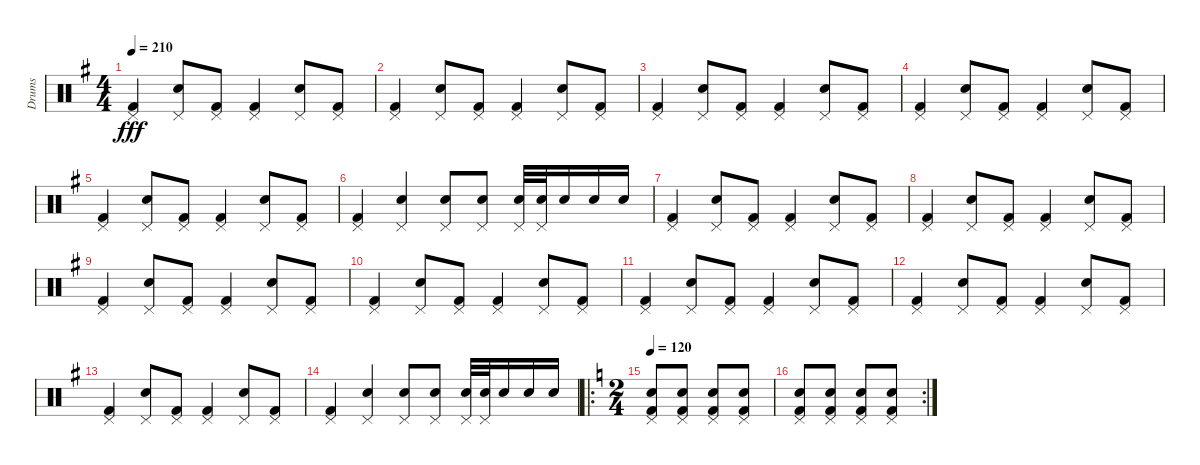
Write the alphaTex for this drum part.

\track ("Drums" "Drums") {instrument percussion}
\staff {score}
\articulation defaults
\ts (4 4)
\tempo 210
\clef neutral
\ks g
("Kick (hit) 2" "Pedal Hi-Hat (hit)").4{dy fff} ("Electric Snare (hit)" "Pedal Hi-Hat (hit)").8 ("Kick (hit) 2" "Pedal Hi-Hat (hit)").8 ("Kick (hit) 2" "Pedal Hi-Hat (hit)").4 ("Electric Snare (hit)" "Pedal Hi-Hat (hit)").8 ("Kick (hit) 2" "Pedal Hi-Hat (hit)").8 |
("Kick (hit) 2" "Pedal Hi-Hat (hit)").4 ("Electric Snare (hit)" "Pedal Hi-Hat (hit)").8 ("Kick (hit) 2" "Pedal Hi-Hat (hit)").8 ("Kick (hit) 2" "Pedal Hi-Hat (hit)").4 ("Electric Snare (hit)" "Pedal Hi-Hat (hit)").8 ("Kick (hit) 2" "Pedal Hi-Hat (hit)").8 |
("Kick (hit) 2" "Pedal Hi-Hat (hit)").4 ("Electric Snare (hit)" "Pedal Hi-Hat (hit)").8 ("Kick (hit) 2" "Pedal Hi-Hat (hit)").8 ("Kick (hit) 2" "Pedal Hi-Hat (hit)").4 ("Electric Snare (hit)" "Pedal Hi-Hat (hit)").8 ("Kick (hit) 2" "Pedal Hi-Hat (hit)").8 |
("Kick (hit) 2" "Pedal Hi-Hat (hit)").4 ("Electric Snare (hit)" "Pedal Hi-Hat (hit)").8 ("Kick (hit) 2" "Pedal Hi-Hat (hit)").8 ("Kick (hit) 2" "Pedal Hi-Hat (hit)").4 ("Electric Snare (hit)" "Pedal Hi-Hat (hit)").8 ("Kick (hit) 2" "Pedal Hi-Hat (hit)").8 |
("Kick (hit) 2" "Pedal Hi-Hat (hit)").4 ("Electric Snare (hit)" "Pedal Hi-Hat (hit)").8 ("Kick (hit) 2" "Pedal Hi-Hat (hit)").8 ("Kick (hit) 2" "Pedal Hi-Hat (hit)").4 ("Electric Snare (hit)" "Pedal Hi-Hat (hit)").8 ("Kick (hit) 2" "Pedal Hi-Hat (hit)").8 |
("Kick (hit) 2" "Pedal Hi-Hat (hit)").4 ("Electric Snare (hit)" "Pedal Hi-Hat (hit)").4 ("Electric Snare (hit)" "Pedal Hi-Hat (hit)").8 ("Electric Snare (hit)" "Pedal Hi-Hat (hit)").8 ("Electric Snare (hit)" "Pedal Hi-Hat (hit)").32 ("Electric Snare (hit)" "Pedal Hi-Hat (hit)").32 "Electric Snare (hit)".16 "Electric Snare (hit)".16 "Electric Snare (hit)".16 |
("Kick (hit) 2" "Pedal Hi-Hat (hit)").4 ("Electric Snare (hit)" "Pedal Hi-Hat (hit)").8 ("Kick (hit) 2" "Pedal Hi-Hat (hit)").8 ("Kick (hit) 2" "Pedal Hi-Hat (hit)").4 ("Electric Snare (hit)" "Pedal Hi-Hat (hit)").8 ("Kick (hit) 2" "Pedal Hi-Hat (hit)").8 |
("Kick (hit) 2" "Pedal Hi-Hat (hit)").4 ("Electric Snare (hit)" "Pedal Hi-Hat (hit)").8 ("Kick (hit) 2" "Pedal Hi-Hat (hit)").8 ("Kick (hit) 2" "Pedal Hi-Hat (hit)").4 ("Electric Snare (hit)" "Pedal Hi-Hat (hit)").8 ("Kick (hit) 2" "Pedal Hi-Hat (hit)").8 |
("Kick (hit) 2" "Pedal Hi-Hat (hit)").4 ("Electric Snare (hit)" "Pedal Hi-Hat (hit)").8 ("Kick (hit) 2" "Pedal Hi-Hat (hit)").8 ("Kick (hit) 2" "Pedal Hi-Hat (hit)").4 ("Electric Snare (hit)" "Pedal Hi-Hat (hit)").8 ("Kick (hit) 2" "Pedal Hi-Hat (hit)").8 |
("Kick (hit) 2" "Pedal Hi-Hat (hit)").4 ("Electric Snare (hit)" "Pedal Hi-Hat (hit)").8 ("Kick (hit) 2" "Pedal Hi-Hat (hit)").8 ("Kick (hit) 2" "Pedal Hi-Hat (hit)").4 ("Electric Snare (hit)" "Pedal Hi-Hat (hit)").8 ("Kick (hit) 2" "Pedal Hi-Hat (hit)").8 |
("Kick (hit) 2" "Pedal Hi-Hat (hit)").4 ("Electric Snare (hit)" "Pedal Hi-Hat (hit)").8 ("Kick (hit) 2" "Pedal Hi-Hat (hit)").8 ("Kick (hit) 2" "Pedal Hi-Hat (hit)").4 ("Electric Snare (hit)" "Pedal Hi-Hat (hit)").8 ("Kick (hit) 2" "Pedal Hi-Hat (hit)").8 |
("Kick (hit) 2" "Pedal Hi-Hat (hit)").4 ("Electric Snare (hit)" "Pedal Hi-Hat (hit)").8 ("Kick (hit) 2" "Pedal Hi-Hat (hit)").8 ("Kick (hit) 2" "Pedal Hi-Hat (hit)").4 ("Electric Snare (hit)" "Pedal Hi-Hat (hit)").8 ("Kick (hit) 2" "Pedal Hi-Hat (hit)").8 |
("Kick (hit) 2" "Pedal Hi-Hat (hit)").4 ("Electric Snare (hit)" "Pedal Hi-Hat (hit)").8 ("Kick (hit) 2" "Pedal Hi-Hat (hit)").8 ("Kick (hit) 2" "Pedal Hi-Hat (hit)").4 ("Electric Snare (hit)" "Pedal Hi-Hat (hit)").8 ("Kick (hit) 2" "Pedal Hi-Hat (hit)").8 |
("Kick (hit) 2" "Pedal Hi-Hat (hit)").4 ("Electric Snare (hit)" "Pedal Hi-Hat (hit)").4 ("Electric Snare (hit)" "Pedal Hi-Hat (hit)").8 ("Electric Snare (hit)" "Pedal Hi-Hat (hit)").8 ("Electric Snare (hit)" "Pedal Hi-Hat (hit)").32 ("Electric Snare (hit)" "Pedal Hi-Hat (hit)").32 "Electric Snare (hit)".16 "Electric Snare (hit)".16 "Electric Snare (hit)".16 |
\ro
\ts (2 4)
\tempo 120
\ks c
("Electric Snare (hit)" "Kick (hit) 2" "Pedal Hi-Hat (hit)").8 ("Electric Snare (hit)" "Kick (hit) 2" "Pedal Hi-Hat (hit)").8 ("Electric Snare (hit)" "Kick (hit) 2" "Pedal Hi-Hat (hit)").8 ("Electric Snare (hit)" "Kick (hit) 2" "Pedal Hi-Hat (hit)").8 |
\rc 2
("Electric Snare (hit)" "Kick (hit) 2" "Pedal Hi-Hat (hit)").8 ("Electric Snare (hit)" "Kick (hit) 2" "Pedal Hi-Hat (hit)").8 ("Electric Snare (hit)" "Kick (hit) 2" "Pedal Hi-Hat (hit)").8 ("Electric Snare (hit)" "Kick (hit) 2" "Pedal Hi-Hat (hit)").8
